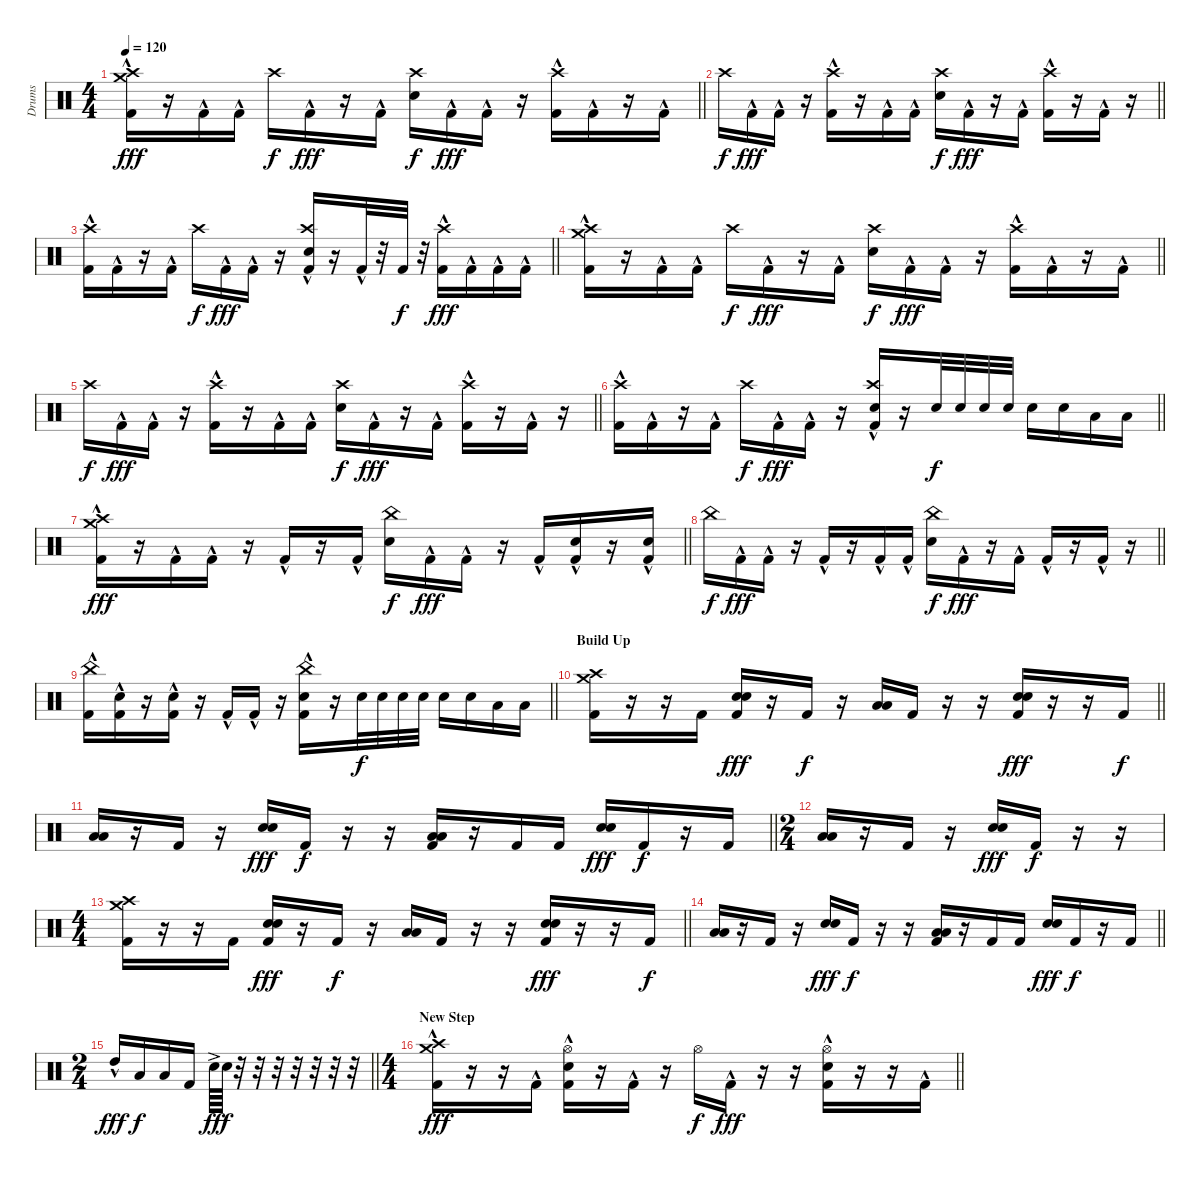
\track ("Drums" "Drums") {instrument percussion}
\staff {score}
\articulation defaults
\ts (4 4)
\tempo 120
\clef neutral
\barLineRight lightlight
\ks c
("Kick (hit) 2"{hac} "Crash high (hit)" "Crash medium (hit)").16{dy fff} r.16 "Kick (hit) 2"{hac}.16 "Kick (hit) 2"{hac}.16 "Crash high (hit)".16{dy f} "Kick (hit) 2"{hac}.16{dy fff} r.16 "Kick (hit) 2"{hac}.16 ("Electric Snare (hit)" "Crash high (hit)").16{dy f} "Kick (hit) 2"{hac}.16{dy fff} "Kick (hit) 2"{hac}.16 r.16 ("Kick (hit) 2"{hac} "Crash high (hit)").16 "Kick (hit) 2"{hac}.16 r.16 "Kick (hit) 2"{hac}.16 |
\barLineRight lightlight "Crash high (hit)".16{dy f} "Kick (hit) 2"{hac}.16{dy fff} "Kick (hit) 2"{hac}.16
r.16 ("Kick (hit) 2"{hac} "Crash high (hit)").16 r.16 "Kick (hit) 2"{hac}.16 "Kick (hit) 2"{hac}.16 ("Electric Snare (hit)" "Crash high (hit)").16{dy f} "Kick (hit) 2"{hac}.16{dy fff} r.16 "Kick (hit) 2"{hac}.16 ("Kick (hit) 2"{hac} "Crash high (hit)").16 r.16 "Kick (hit) 2"{hac}.16 r.16 |
\barLineRight lightlight
("Kick (hit) 2"{hac} "Crash high (hit)").16 "Kick (hit) 2"{hac}.16 r.16 "Kick (hit) 2"{hac}.16 "Crash high (hit)".16{dy f} "Kick (hit) 2"{hac}.16{dy fff} "Kick (hit) 2"{hac}.16 r.16 ("Kick (hit) 2"{hac} "Electric Snare (hit)" "Crash high (hit)").16 r.16 "Kick (hit) 2"{hac}.32 r.32 "Kick (hit) 2".32{dy f} r.32 ("Kick (hit) 2"{hac} "Crash high (hit)").16{dy fff} "Kick (hit) 2"{hac}.16 "Kick (hit) 2"{hac}.16 "Kick (hit) 2"{hac}.16 |
\barLineRight lightlight
("Kick (hit) 2"{hac} "Crash medium (hit)" "Crash high (hit)").16 r.16 "Kick (hit) 2"{hac}.16 "Kick (hit) 2"{hac}.16 "Crash high (hit)".16{dy f} "Kick (hit) 2"{hac}.16{dy fff} r.16 "Kick (hit) 2"{hac}.16 ("Electric Snare (hit)" "Crash high (hit)").16{dy f} "Kick (hit) 2"{hac}.16{dy fff} "Kick (hit) 2"{hac}.16 r.16 ("Kick (hit) 2"{hac} "Crash high (hit)").16 "Kick (hit) 2"{hac}.16 r.16 "Kick (hit) 2"{hac}.16 |
\barLineRight lightlight "Crash high (hit)".16{dy f} "Kick (hit) 2"{hac}.16{dy fff} "Kick (hit) 2"{hac}.16
r.16 ("Kick (hit) 2"{hac} "Crash high (hit)").16 r.16 "Kick (hit) 2"{hac}.16 "Kick (hit) 2"{hac}.16 ("Electric Snare (hit)" "Crash high (hit)").16{dy f} "Kick (hit) 2"{hac}.16{dy fff} r.16 "Kick (hit) 2"{hac}.16 ("Kick (hit) 2"{hac} "Crash high (hit)").16 r.16 "Kick (hit) 2"{hac}.16 r.16 |
\barLineRight lightlight
("Kick (hit) 2"{hac} "Crash high (hit)").16 "Kick (hit) 2"{hac}.16 r.16 "Kick (hit) 2"{hac}.16 "Crash high (hit)".16{dy f} "Kick (hit) 2"{hac}.16{dy fff} "Kick (hit) 2"{hac}.16 r.16 ("Kick (hit) 2"{hac} "Electric Snare (hit)" "Crash high (hit)").16 r.16 "Electric Snare (hit)".32{dy f} "Electric Snare (hit)".32 "Electric Snare (hit)".32 "Electric Snare (hit)".32 "Electric Snare (hit)".16 "Electric Snare (hit)".16 "Low Tom (hit)".16 "Low Tom (hit)".16 |
\barLineRight lightlight
("Kick (hit) 2"{hac} "Crash high (hit)" "Crash medium (hit)").16{dy fff} r.16 "Kick (hit) 2"{hac}.16 "Kick (hit) 2"{hac}.16 r.16 "Kick (hit) 2"{hac}.16 r.16 "Kick (hit) 2"{hac}.16 ("Electric Snare (hit)" "China (hit)").16{dy f} "Kick (hit) 2"{hac}.16{dy fff} "Kick (hit) 2"{hac}.16 r.16 "Kick (hit) 2"{hac}.16 ("Kick (hit) 2"{hac} "Electric Snare (hit)").16 r.16 ("Kick (hit) 2"{hac} "Electric Snare (hit)").16 |
\barLineRight lightlight "China (hit)".16{dy f} "Kick (hit) 2"{hac}.16{dy fff} "Kick (hit) 2"{hac}.16
r.16 "Kick (hit) 2"{hac}.16 r.16 "Kick (hit) 2"{hac}.16 "Kick (hit) 2"{hac}.16 ("Electric Snare (hit)" "China (hit)").16{dy f} "Kick (hit) 2"{hac}.16{dy fff} r.16 "Kick (hit) 2"{hac}.16 "Kick (hit) 2"{hac}.16 r.16 "Kick (hit) 2"{hac}.16 r.16 |
\barLineRight lightlight
("Kick (hit) 2"{hac} "China (hit)").16 ("Kick (hit) 2"{hac} "Electric Snare (hit)").16 r.16 ("Kick (hit) 2"{hac} "Electric Snare (hit)").16 r.16 "Kick (hit) 2"{hac}.16 "Kick (hit) 2"{hac}.16 r.16 ("Kick (hit) 2"{hac} "Electric Snare (hit)" "China (hit)").16 r.16 "Electric Snare (hit)".32{dy f} "Electric Snare (hit)".32 "Electric Snare (hit)".32 "Electric Snare (hit)".32 "Electric Snare (hit)".16 "Electric Snare (hit)".16 "Low Floor Tom (hit)".16 "Low Floor Tom (hit)".16 |
\section ("" "Build Up")
\barLineRight lightlight
("Kick (hit) 2" "Crash medium (hit)" "Crash high (hit)").16 r.16 r.16 "Kick (hit) 2".16 ("Kick (hit) 2" "Electric Snare (hit)" "Electric Snare (hit)").16{dy fff} r.16 "Kick (hit) 2".16{dy f} r.16 ("Low Tom (hit)" "Low Floor Tom (hit)").16 "Kick (hit) 2".16 r.16 r.16 ("Kick (hit) 2" "Electric Snare (hit)" "Electric Snare (hit)").16{dy fff} r.16 r.16 "Kick (hit) 2".16{dy f} |
\barLineRight lightlight
("Low Tom (hit)" "Low Floor Tom (hit)").16 r.16 "Kick (hit) 2".16 r.16 ("Electric Snare (hit)" "Electric Snare (hit)").16{dy fff} "Kick (hit) 2".16{dy f} r.16 r.16 ("Kick (hit) 2" "Low Tom (hit)" "Low Floor Tom (hit)").16 r.16 "Kick (hit) 2".16 "Kick (hit) 2".16 ("Electric Snare (hit)" "Electric Snare (hit)").16{dy fff} "Kick (hit) 2".16{dy f} r.16 "Kick (hit) 2".16 |
\ts (2 4)
("Low Tom (hit)" "Low Floor Tom (hit)").16 r.16 "Kick (hit) 2".16 r.16 ("Electric Snare (hit)" "Electric Snare (hit)").16{dy fff} "Kick (hit) 2".16{dy f} r.16 r.16 |
\ts (4 4)
\barLineRight lightlight
("Kick (hit) 2" "Crash medium (hit)" "Crash high (hit)").16 r.16 r.16 "Kick (hit) 2".16 ("Kick (hit) 2" "Electric Snare (hit)" "Electric Snare (hit)").16{dy fff} r.16 "Kick (hit) 2".16{dy f} r.16 ("Low Tom (hit)" "Low Floor Tom (hit)").16 "Kick (hit) 2".16 r.16 r.16 ("Kick (hit) 2" "Electric Snare (hit)" "Electric Snare (hit)").16{dy fff} r.16 r.16 "Kick (hit) 2".16{dy f} |
\barLineRight lightlight
("Low Tom (hit)" "Low Floor Tom (hit)").16 r.16 "Kick (hit) 2".16 r.16 ("Electric Snare (hit)" "Electric Snare (hit)").16{dy fff} "Kick (hit) 2".16{dy f} r.16 r.16 ("Kick (hit) 2" "Low Tom (hit)" "Low Floor Tom (hit)").16 r.16 "Kick (hit) 2".16 "Kick (hit) 2".16 ("Electric Snare (hit)" "Electric Snare (hit)").16{dy fff} "Kick (hit) 2".16{dy f} r.16 "Kick (hit) 2".16 |
\ts (2 4)
\barLineRight lightlight "High Tom (hit)"{hac}.16{dy fff} "Low Floor Tom (hit)".16{dy f} "Low Floor Tom (hit)".16 "Kick (hit) 2".16 "Electric Snare (hit)"{ac}.64{dy ff} "Electric Snare (hit)".64{dy f}
r.32 r.32 r.32 r.32 r.32 r.32 r.32 |
\ts (4 4)
\section ("" "New Step")
\barLineRight lightlight
("Kick (hit) 2"{hac} "Crash high (hit)" "Crash medium (hit)").16{dy fff} r.16 r.16 "Kick (hit) 2"{hac}.16 ("Kick (hit) 2"{hac} "Electric Snare (hit)" "Hi-Hat (open)").16 r.16 "Kick (hit) 2"{hac}.16 r.16 "Hi-Hat (open)".16{dy f} "Kick (hit) 2"{hac}.16{dy fff} r.16 r.16 ("Kick (hit) 2"{hac} "Electric Snare (hit)" "Hi-Hat (open)").16 r.16 r.16 "Kick (hit) 2"{hac}.16
